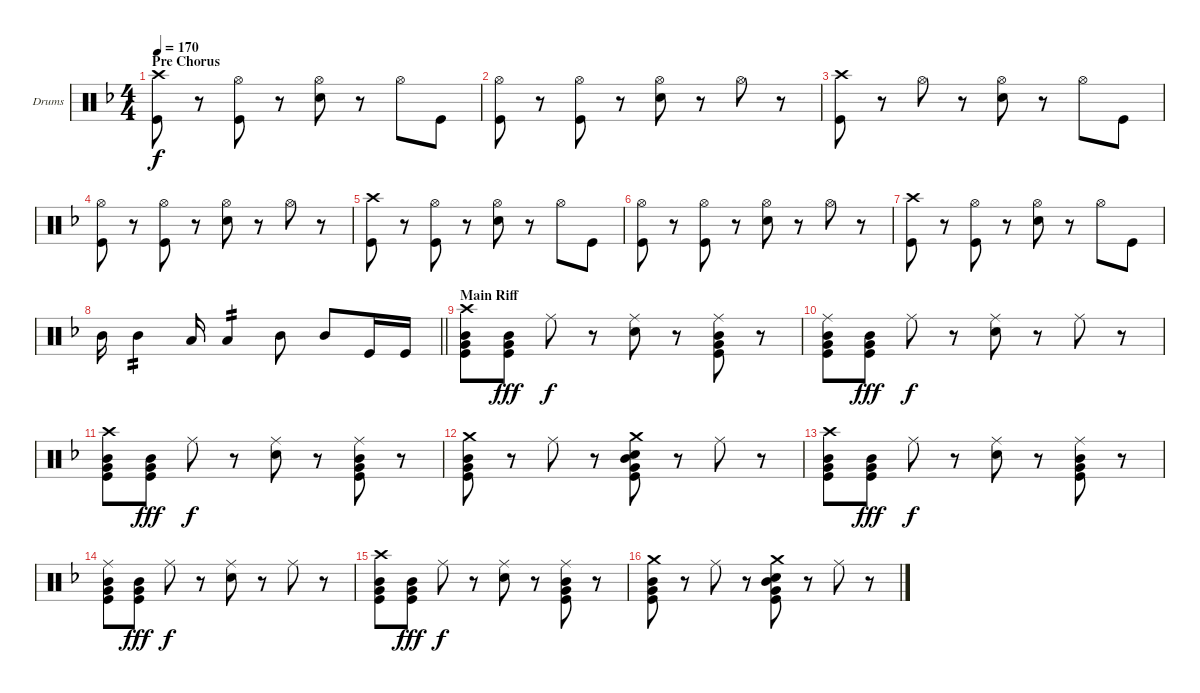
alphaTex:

\bracketExtendMode groupsimilarinstruments
\firstSystemTrackNameOrientation horizontal
\otherSystemsTrackNameOrientation horizontal
\track ("Drumkit" "Drums") {instrument percussion}
\staff {score}
\articulation defaults
\ts (4 4)
\section ("" "Pre Chorus")
\tempo 170
\clef neutral
\scale
0.395062
\ks dminor
("Crash high (hit)" "Kick (hit)").8{dy f} r.8 ("Hi-Hat (open)" "Kick (hit)").8 r.8 ("Hi-Hat (open)" "Snare (hit) 2").8 r.8 "Hi-Hat (open)".8 "Kick (hit)".8 |
\scale
0.333333 ("Hi-Hat (open)" "Kick (hit)").8 r.8 ("Hi-Hat (open)" "Kick (hit)").8 r.8 ("Hi-Hat (open)" "Snare (hit) 2").8 r.8 "Hi-Hat (open)".8 r.8 |
\scale
0.333333 ("Crash high (hit)" "Kick (hit)").8 r.8 "Hi-Hat (open)".8 r.8 ("Hi-Hat (open)" "Snare (hit) 2").8 r.8 "Hi-Hat (open)".8 "Kick (hit)".8 |
\scale
0.333333 ("Hi-Hat (open)" "Kick (hit)").8 r.8 ("Hi-Hat (open)" "Kick (hit)").8 r.8 ("Hi-Hat (open)" "Snare (hit) 2").8 r.8 "Hi-Hat (open)".8 r.8 |
\scale
0.333333 ("Crash high (hit)" "Kick (hit)").8 r.8 ("Hi-Hat (open)" "Kick (hit)").8 r.8 ("Hi-Hat (open)" "Snare (hit) 2").8 r.8 "Hi-Hat (open)".8 "Kick (hit)".8 |
\scale
0.333333 ("Hi-Hat (open)" "Kick (hit)").8 r.8 ("Hi-Hat (open)" "Kick (hit)").8 r.8 ("Hi-Hat (open)" "Snare (hit) 2").8 r.8 "Hi-Hat (open)".8 r.8 |
\scale
0.333333 ("Crash high (hit)" "Kick (hit)").8 r.8 ("Hi-Hat (open)" "Kick (hit)").8 r.8 ("Hi-Hat (open)" "Snare (hit) 2").8 r.8 "Hi-Hat (open)".8 "Kick (hit)".8 |
\scale
0.362477
\barLineRight lightlight "Mid Tom (hit)".16 "Mid Tom (hit)".4{tp 2} "Low Tom (hit)".16 "Low Tom (hit)".4{tp 2} "Mid Tom (hit)".8 "Mid Tom (hit)".8 "Kick (hit)".16 "Kick (hit)".16
|
\section ("" "Main Riff")
\scale
0.318761 ("Crash high (hit)" "Mid Tom (hit)" "Very Low Tom (hit)" "Kick (hit)").8 ("Mid Tom (hit)" "Very Low Tom (hit)" "Kick (hit)").8{dy fff} "Ride (middle)".8{dy f} r.8 ("Ride (middle)" "Snare (hit) 2").8 r.8 ("Ride (middle)" "Mid Tom (hit)" "Very Low Tom (hit)" "Kick (hit)").8 r.8 |
\scale
0.318761 ("Ride (middle)" "Mid Tom (hit)" "Very Low Tom (hit)" "Kick (hit)").8 ("Mid Tom (hit)" "Very Low Tom (hit)" "Kick (hit)").8{dy fff} "Ride (middle)".8{dy f} r.8 ("Ride (middle)" "Snare (hit) 2").8 r.8 "Ride (middle)".8 r.8 |
\scale
0.324074 ("Crash high (hit)" "Mid Tom (hit)" "Very Low Tom (hit)" "Kick (hit)").8 ("Mid Tom (hit)" "Very Low Tom (hit)" "Kick (hit)").8{dy fff} "Ride (middle)".8{dy f} r.8 ("Ride (middle)" "Snare (hit) 2").8 r.8 ("Ride (middle)" "Mid Tom (hit)" "Very Low Tom (hit)" "Kick (hit)").8 r.8 |
\scale
0.351852 ("Crash medium (hit)" "Mid Tom (hit)" "Very Low Tom (hit)" "Kick (hit)").8 r.8 "Ride (middle)".8 r.8 ("Crash medium (hit)" "Snare (hit) 2" "Mid Tom (hit)" "Very Low Tom (hit)" "Kick (hit)").8 r.8 "Ride (middle)".8 r.8 |
\scale
0.324074 ("Crash high (hit)" "Mid Tom (hit)" "Very Low Tom (hit)" "Kick (hit)").8 ("Mid Tom (hit)" "Very Low Tom (hit)" "Kick (hit)").8{dy fff} "Ride (middle)".8{dy f} r.8 ("Ride (middle)" "Snare (hit) 2").8 r.8 ("Ride (middle)" "Mid Tom (hit)" "Very Low Tom (hit)" "Kick (hit)").8 r.8 |
\scale
0.324074 ("Ride (middle)" "Mid Tom (hit)" "Very Low Tom (hit)" "Kick (hit)").8 ("Mid Tom (hit)" "Very Low Tom (hit)" "Kick (hit)").8{dy fff} "Ride (middle)".8{dy f} r.8 ("Ride (middle)" "Snare (hit) 2").8 r.8 "Ride (middle)".8 r.8 |
\scale
0.324074 ("Crash high (hit)" "Mid Tom (hit)" "Very Low Tom (hit)" "Kick (hit)").8 ("Mid Tom (hit)" "Very Low Tom (hit)" "Kick (hit)").8{dy fff} "Ride (middle)".8{dy f} r.8 ("Ride (middle)" "Snare (hit) 2").8 r.8 ("Ride (middle)" "Mid Tom (hit)" "Very Low Tom (hit)" "Kick (hit)").8 r.8 |
\scale
0.351852 ("Crash medium (hit)" "Mid Tom (hit)" "Very Low Tom (hit)" "Kick (hit)").8 r.8 "Ride (middle)".8 r.8 ("Crash medium (hit)" "Snare (hit) 2" "Mid Tom (hit)" "Very Low Tom (hit)" "Kick (hit)").8 r.8 "Ride (middle)".8 r.8
